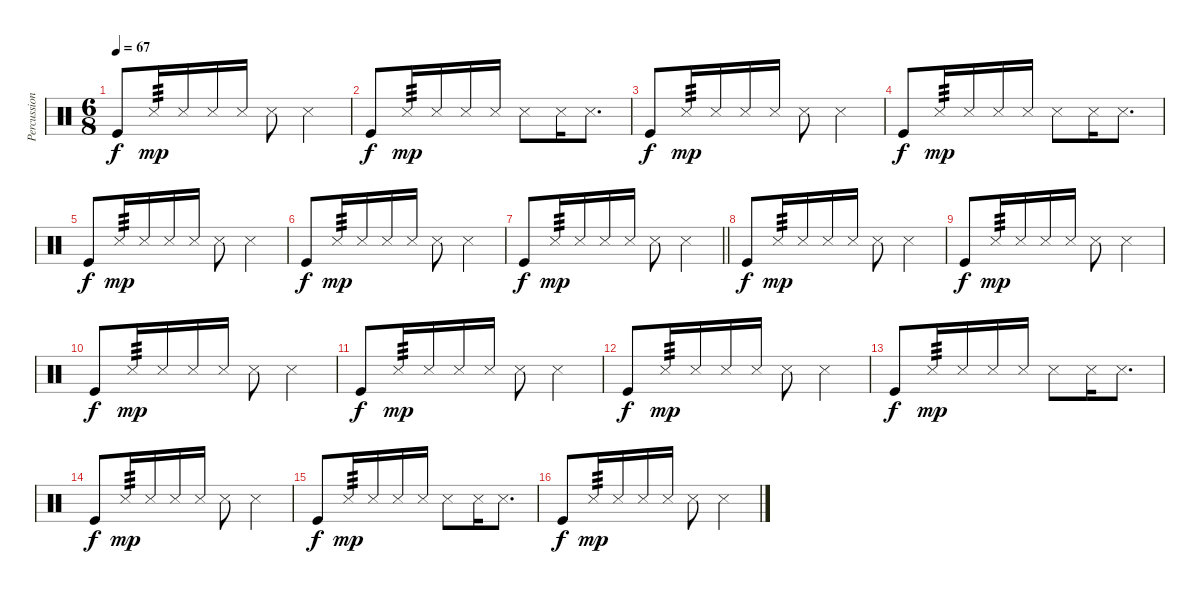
\track ("Percussions" "Percussion") {instrument percussion}
\staff {score}
\articulation defaults
\ts (6 8)
\tempo 67
\clef neutral
\ks c "Kick (hit)".8{dy f} "Snare (side stick) 3".16{tp 3 dy mp} "Snare (side stick) 3".16 "Snare (side stick) 3".16 "Snare (side stick) 3".16 "Snare (side stick) 3".8 "Snare (side stick) 3".4
|
"Kick (hit)".8{dy f} "Snare (side stick) 3".16{tp 3 dy mp} "Snare (side stick) 3".16 "Snare (side stick) 3".16 "Snare (side stick) 3".16 "Snare (side stick) 3".8 "Snare (side stick) 3".16 "Snare (side stick) 3".8{d} |
"Kick (hit)".8{dy f} "Snare (side stick) 3".16{tp 3 dy mp} "Snare (side stick) 3".16 "Snare (side stick) 3".16 "Snare (side stick) 3".16 "Snare (side stick) 3".8 "Snare (side stick) 3".4 |
"Kick (hit)".8{dy f} "Snare (side stick) 3".16{tp 3 dy mp} "Snare (side stick) 3".16 "Snare (side stick) 3".16 "Snare (side stick) 3".16 "Snare (side stick) 3".8 "Snare (side stick) 3".16 "Snare (side stick) 3".8{d} |
"Kick (hit)".8{dy f} "Snare (side stick) 3".16{tp 3 dy mp} "Snare (side stick) 3".16 "Snare (side stick) 3".16 "Snare (side stick) 3".16 "Snare (side stick) 3".8 "Snare (side stick) 3".4 |
"Kick (hit)".8{dy f} "Snare (side stick) 3".16{tp 3 dy mp} "Snare (side stick) 3".16 "Snare (side stick) 3".16 "Snare (side stick) 3".16 "Snare (side stick) 3".8 "Snare (side stick) 3".4 |
\barLineRight lightlight "Kick (hit)".8{dy f} "Snare (side stick) 3".16{tp 3 dy mp} "Snare (side stick) 3".16 "Snare (side stick) 3".16 "Snare (side stick) 3".16 "Snare (side stick) 3".8 "Snare (side stick) 3".4
|
"Kick (hit)".8{dy f} "Snare (side stick) 3".16{tp 3 dy mp} "Snare (side stick) 3".16 "Snare (side stick) 3".16 "Snare (side stick) 3".16 "Snare (side stick) 3".8 "Snare (side stick) 3".4 |
"Kick (hit)".8{dy f} "Snare (side stick) 3".16{tp 3 dy mp} "Snare (side stick) 3".16 "Snare (side stick) 3".16 "Snare (side stick) 3".16 "Snare (side stick) 3".8 "Snare (side stick) 3".4 |
"Kick (hit)".8{dy f} "Snare (side stick) 3".16{tp 3 dy mp} "Snare (side stick) 3".16 "Snare (side stick) 3".16 "Snare (side stick) 3".16 "Snare (side stick) 3".8 "Snare (side stick) 3".4 |
"Kick (hit)".8{dy f} "Snare (side stick) 3".16{tp 3 dy mp} "Snare (side stick) 3".16 "Snare (side stick) 3".16 "Snare (side stick) 3".16 "Snare (side stick) 3".8 "Snare (side stick) 3".4 |
"Kick (hit)".8{dy f} "Snare (side stick) 3".16{tp 3 dy mp} "Snare (side stick) 3".16 "Snare (side stick) 3".16 "Snare (side stick) 3".16 "Snare (side stick) 3".8 "Snare (side stick) 3".4 |
"Kick (hit)".8{dy f} "Snare (side stick) 3".16{tp 3 dy mp} "Snare (side stick) 3".16 "Snare (side stick) 3".16 "Snare (side stick) 3".16 "Snare (side stick) 3".8 "Snare (side stick) 3".16 "Snare (side stick) 3".8{d} |
"Kick (hit)".8{dy f} "Snare (side stick) 3".16{tp 3 dy mp} "Snare (side stick) 3".16 "Snare (side stick) 3".16 "Snare (side stick) 3".16 "Snare (side stick) 3".8 "Snare (side stick) 3".4 |
"Kick (hit)".8{dy f} "Snare (side stick) 3".16{tp 3 dy mp} "Snare (side stick) 3".16 "Snare (side stick) 3".16 "Snare (side stick) 3".16 "Snare (side stick) 3".8 "Snare (side stick) 3".16 "Snare (side stick) 3".8{d} |
"Kick (hit)".8{dy f} "Snare (side stick) 3".16{tp 3 dy mp} "Snare (side stick) 3".16 "Snare (side stick) 3".16 "Snare (side stick) 3".16 "Snare (side stick) 3".8 "Snare (side stick) 3".4
